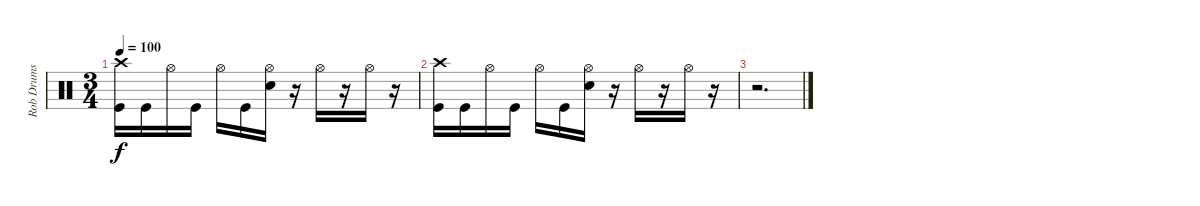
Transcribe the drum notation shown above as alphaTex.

\track ("Rob Drums" "Rob Drums") {instrument percussion}
\staff {score}
\articulation defaults
\ts (3 4)
\tempo 100
\clef neutral
\ks c
("Crash high (hit)" "Kick (hit)").16{dy f} "Kick (hit)".16 "Hi-Hat (open)".16 "Kick (hit)".16 "Hi-Hat (open)".16 "Kick (hit)".16 ("Hi-Hat (open)" "Snare (hit) 2").16 r.16 "Hi-Hat (open)".16 r.16 "Hi-Hat (open)".16 r.16 |
("Crash high (hit)" "Kick (hit)").16 "Kick (hit)".16 "Hi-Hat (open)".16 "Kick (hit)".16 "Hi-Hat (open)".16 "Kick (hit)".16 ("Hi-Hat (open)" "Snare (hit) 2").16 r.16 "Hi-Hat (open)".16 r.16 "Hi-Hat (open)".16 r.16 |
r.2{d}
